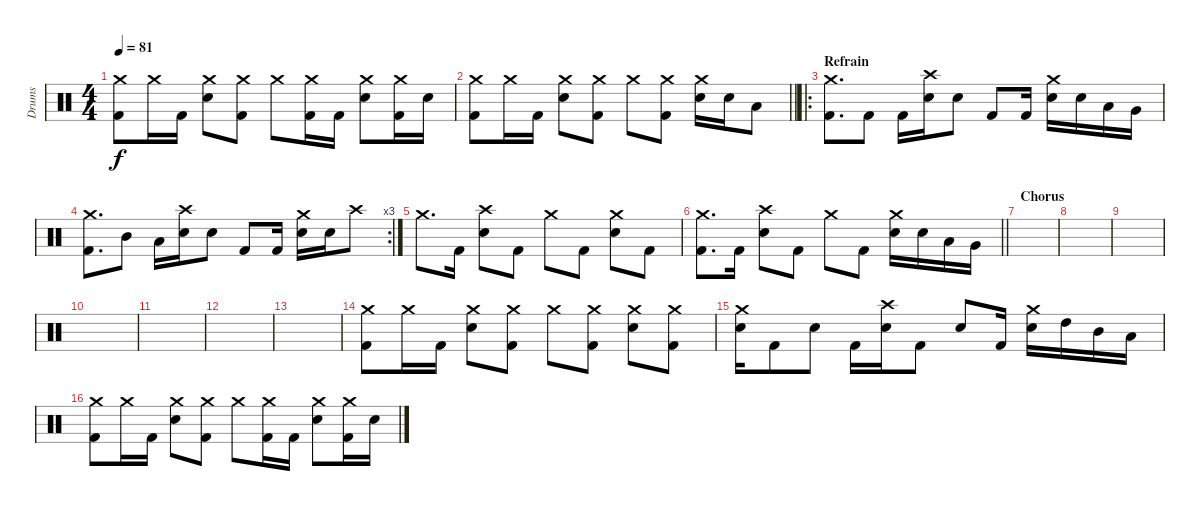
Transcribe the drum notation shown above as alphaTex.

\track ("Drums" "Drums") {instrument percussion}
\staff {score}
\articulation defaults
\ts (4 4)
\tempo 81
\clef neutral
\ks c
("Kick (hit) 2" "Crash medium (hit)").8{dy f} "Crash medium (hit)".16 "Kick (hit) 2".16 ("Electric Snare (hit)" "Crash medium (hit)").8 ("Kick (hit) 2" "Crash medium (hit)").8 "Crash medium (hit)".8 ("Kick (hit) 2" "Crash medium (hit)").16 "Kick (hit) 2".16 ("Electric Snare (hit)" "Crash medium (hit)").8 ("Kick (hit) 2" "Crash medium (hit)").16 "Electric Snare (hit)".16 |
\barLineRight lightlight
("Kick (hit) 2" "Crash medium (hit)").8 "Crash medium (hit)".16 "Kick (hit) 2".16 ("Electric Snare (hit)" "Crash medium (hit)").8 ("Kick (hit) 2" "Crash medium (hit)").8 "Crash medium (hit)".8 ("Kick (hit) 2" "Crash medium (hit)").8 ("Electric Snare (hit)" "Crash medium (hit)").16 "Electric Snare (hit)".16 "Low Tom (hit)".8 |
\ro
\section ("" "Refrain")
("Kick (hit) 2" "Crash medium (hit)").8{d} "Kick (hit) 2".8 "Kick (hit) 2".16 ("Electric Snare (hit)" "Crash high (hit)").16 "Electric Snare (hit)".8 "Kick (hit) 2".8 "Kick (hit) 2".16 ("Electric Snare (hit)" "Crash medium (hit)").16 "Electric Snare (hit)".16 "Low Tom (hit)".16 "Very Low Tom (hit)".16 |
\rc 3
("Kick (hit) 2" "Crash medium (hit)").8{d} "Mid Tom (hit)".8 "Low Tom (hit)".16 ("Electric Snare (hit)" "Crash high (hit)").16 "Electric Snare (hit)".8 "Kick (hit) 2".8 "Kick (hit) 2".16 ("Electric Snare (hit)" "Crash medium (hit)").16 "Electric Snare (hit)".16 "Crash high (hit)".8 |
"Crash medium (hit)".8{d} "Kick (hit) 2".16 ("Electric Snare (hit)" "Crash high (hit)").8 "Kick (hit) 2".8 "Crash medium (hit)".8 "Kick (hit) 2".8 ("Electric Snare (hit)" "Crash medium (hit)").8 "Kick (hit) 2".8 |
\barLineRight lightlight
("Kick (hit) 2" "Crash medium (hit)").8{d} "Kick (hit) 2".16 ("Electric Snare (hit)" "Crash high (hit)").8 "Kick (hit) 2".8 "Crash medium (hit)".8 "Kick (hit) 2".8 ("Electric Snare (hit)" "Crash medium (hit)").16 "Electric Snare (hit)".16 "Low Tom (hit)".16 "Very Low Tom (hit)".16 |
\section ("" "Chorus")
|
|
|
|
|
|
|
("Kick (hit) 2" "Crash medium (hit)").8 "Crash medium (hit)".16 "Kick (hit) 2".16 ("Electric Snare (hit)" "Crash medium (hit)").8 ("Kick (hit) 2" "Crash medium (hit)").8 "Crash medium (hit)".8 ("Kick (hit) 2" "Crash medium (hit)").8 ("Electric Snare (hit)" "Crash medium (hit)").8 ("Kick (hit) 2" "Crash medium (hit)").8 |
("Electric Snare (hit)" "Crash medium (hit)").16 "Kick (hit) 2".8 "Electric Snare (hit)".8 "Kick (hit) 2".16 ("Electric Snare (hit)" "Crash high (hit)").16 "Kick (hit) 2".8 "Electric Snare (hit)".8 "Kick (hit) 2".16 ("Electric Snare (hit)" "Crash medium (hit)").16 "High Tom (hit)".16 "Mid Tom (hit)".16 "Low Tom (hit)".16 |
("Kick (hit) 2" "Crash medium (hit)").8 "Crash medium (hit)".16 "Kick (hit) 2".16 ("Electric Snare (hit)" "Crash medium (hit)").8 ("Kick (hit) 2" "Crash medium (hit)").8 "Crash medium (hit)".8 ("Kick (hit) 2" "Crash medium (hit)").16 "Kick (hit) 2".16 ("Electric Snare (hit)" "Crash medium (hit)").8 ("Kick (hit) 2" "Crash medium (hit)").16 "Electric Snare (hit)".16
